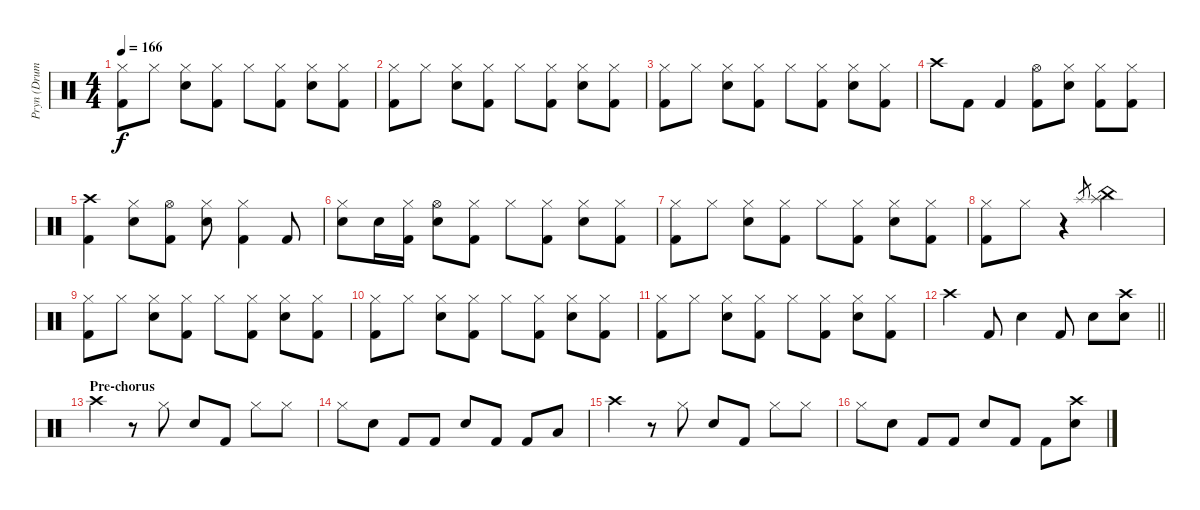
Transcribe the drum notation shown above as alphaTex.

\track ("Pryn (Drums)" "Pryn (Drum") {instrument percussion}
\staff {score}
\articulation defaults
\ts (4 4)
\tempo 166
\clef neutral
\ks c
("Hi-Hat (closed)" "Kick (hit) 2").8{dy f} "Hi-Hat (closed)".8 ("Hi-Hat (closed)" "Snare (hit) 2").8 ("Hi-Hat (closed)" "Kick (hit) 2").8 "Hi-Hat (closed)".8 ("Kick (hit) 2" "Hi-Hat (closed)").8 ("Hi-Hat (closed)" "Snare (hit) 2").8 ("Hi-Hat (closed)" "Kick (hit) 2").8 |
("Hi-Hat (closed)" "Kick (hit) 2").8 "Hi-Hat (closed)".8 ("Hi-Hat (closed)" "Snare (hit) 2").8 ("Hi-Hat (closed)" "Kick (hit) 2").8 "Hi-Hat (closed)".8 ("Kick (hit) 2" "Hi-Hat (closed)").8 ("Hi-Hat (closed)" "Snare (hit) 2").8 ("Hi-Hat (closed)" "Kick (hit) 2").8 |
("Hi-Hat (closed)" "Kick (hit) 2").8 "Hi-Hat (closed)".8 ("Hi-Hat (closed)" "Snare (hit) 2").8 ("Hi-Hat (closed)" "Kick (hit) 2").8 "Hi-Hat (closed)".8 ("Kick (hit) 2" "Hi-Hat (closed)").8 ("Hi-Hat (closed)" "Snare (hit) 2").8 ("Hi-Hat (closed)" "Kick (hit) 2").8 |
"Crash high (hit)".8 "Kick (hit) 2".8 "Kick (hit) 2".4 ("Kick (hit) 2" "Hi-Hat (open)").8 ("Snare (hit) 2" "Hi-Hat (closed)").8 ("Kick (hit) 2" "Hi-Hat (closed)").8 ("Kick (hit) 2" "Hi-Hat (closed)").8 |
("Kick (hit) 2" "Crash high (hit)").4 ("Snare (hit) 2" "Hi-Hat (closed)").8 ("Kick (hit) 2" "Hi-Hat (open)").8 ("Snare (hit) 2" "Hi-Hat (closed)").8 ("Kick (hit) 2" "Hi-Hat (closed)").4 "Kick (hit) 2".8 |
("Snare (hit) 2" "Hi-Hat (closed)").8 "Snare (hit) 2".16 ("Kick (hit) 2" "Hi-Hat (closed)").16 ("Snare (hit) 2" "Hi-Hat (open)").8 ("Hi-Hat (closed)" "Kick (hit) 2").8 "Hi-Hat (closed)".8 ("Kick (hit) 2" "Hi-Hat (closed)").8 ("Hi-Hat (closed)" "Snare (hit) 2").8 ("Hi-Hat (closed)" "Kick (hit) 2").8 |
("Hi-Hat (closed)" "Kick (hit) 2").8 "Hi-Hat (closed)".8 ("Hi-Hat (closed)" "Snare (hit) 2").8 ("Hi-Hat (closed)" "Kick (hit) 2").8 "Hi-Hat (closed)".8 ("Kick (hit) 2" "Hi-Hat (closed)").8 ("Hi-Hat (closed)" "Snare (hit) 2").8 ("Hi-Hat (closed)" "Kick (hit) 2").8 |
("Hi-Hat (closed)" "Kick (hit) 2").8 "Hi-Hat (closed)".8 r.4 "Splash (hit)".8{gr} ("Splash (hit)" "China (hit)").2 |
("Hi-Hat (closed)" "Kick (hit) 2").8 "Hi-Hat (closed)".8 ("Hi-Hat (closed)" "Snare (hit) 2").8 ("Hi-Hat (closed)" "Kick (hit) 2").8 "Hi-Hat (closed)".8 ("Kick (hit) 2" "Hi-Hat (closed)").8 ("Hi-Hat (closed)" "Snare (hit) 2").8 ("Hi-Hat (closed)" "Kick (hit) 2").8 |
("Hi-Hat (closed)" "Kick (hit) 2").8 "Hi-Hat (closed)".8 ("Hi-Hat (closed)" "Snare (hit) 2").8 ("Hi-Hat (closed)" "Kick (hit) 2").8 "Hi-Hat (closed)".8 ("Kick (hit) 2" "Hi-Hat (closed)").8 ("Hi-Hat (closed)" "Snare (hit) 2").8 ("Hi-Hat (closed)" "Kick (hit) 2").8 |
("Hi-Hat (closed)" "Kick (hit) 2").8 "Hi-Hat (closed)".8 ("Hi-Hat (closed)" "Snare (hit) 2").8 ("Hi-Hat (closed)" "Kick (hit) 2").8 "Hi-Hat (closed)".8 ("Kick (hit) 2" "Hi-Hat (closed)").8 ("Hi-Hat (closed)" "Snare (hit) 2").8 ("Hi-Hat (closed)" "Kick (hit) 2").8 |
\barLineRight lightlight "Crash high (hit)".4 "Kick (hit) 2".8 "Snare (hit) 2".4 "Kick (hit) 2".8 "Snare (hit) 2".8
("Snare (hit) 2" "Crash high (hit)").8 |
\section ("" "Pre-chorus")
"Crash high (hit)".4 r.8 "Hi-Hat (closed)".8 "Snare (hit) 2".8 "Kick (hit) 2".8 "Hi-Hat (closed)".8 "Hi-Hat (closed)".8 |
"Hi-Hat (closed)".8 "Snare (hit) 2".8 "Kick (hit) 2".8 "Kick (hit) 2".8 "Snare (hit) 2".8 "Kick (hit) 2".8 "Kick (hit) 2".8 "Low Floor Tom (hit)".8 |
"Crash high (hit)".4 r.8 "Hi-Hat (closed)".8 "Snare (hit) 2".8 "Kick (hit) 2".8 "Hi-Hat (closed)".8 "Hi-Hat (closed)".8 |
"Hi-Hat (closed)".8 "Snare (hit) 2".8 "Kick (hit) 2".8 "Kick (hit) 2".8 "Snare (hit) 2".8 "Kick (hit) 2".8 "Kick (hit) 2".8 ("Snare (hit) 2" "Crash high (hit)").8
